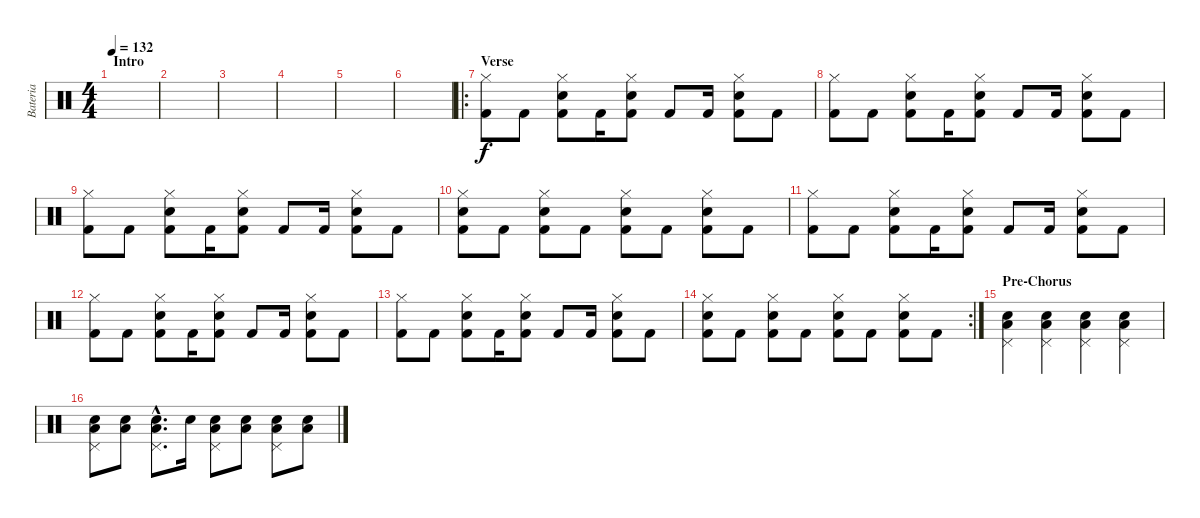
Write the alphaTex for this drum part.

\track ("Bateria" "Bateria") {instrument percussion}
\staff {score}
\articulation defaults
\ts (4 4)
\section ("" "Intro")
\tempo 132
\clef neutral
\ks c
|
|
|
|
|
|
\ro
\section ("" "Verse")
("Hi-Hat (closed)" "Kick (hit) 2").8 "Kick (hit) 2".8 ("Hi-Hat (closed)" "Kick (hit) 2" "Electric Snare (hit)").8 "Kick (hit) 2".16 ("Hi-Hat (closed)" "Kick (hit) 2" "Electric Snare (hit)").8 "Kick (hit) 2".8 "Kick (hit) 2".16 ("Hi-Hat (closed)" "Kick (hit) 2" "Electric Snare (hit)").8 "Kick (hit) 2".8 |
("Hi-Hat (closed)" "Kick (hit) 2").8 "Kick (hit) 2".8 ("Hi-Hat (closed)" "Kick (hit) 2" "Electric Snare (hit)").8 "Kick (hit) 2".16 ("Hi-Hat (closed)" "Kick (hit) 2" "Electric Snare (hit)").8 "Kick (hit) 2".8 "Kick (hit) 2".16 ("Hi-Hat (closed)" "Kick (hit) 2" "Electric Snare (hit)").8 "Kick (hit) 2".8 |
("Hi-Hat (closed)" "Kick (hit) 2").8 "Kick (hit) 2".8 ("Hi-Hat (closed)" "Kick (hit) 2" "Electric Snare (hit)").8 "Kick (hit) 2".16 ("Hi-Hat (closed)" "Kick (hit) 2" "Electric Snare (hit)").8 "Kick (hit) 2".8 "Kick (hit) 2".16 ("Hi-Hat (closed)" "Kick (hit) 2" "Electric Snare (hit)").8 "Kick (hit) 2".8 |
("Hi-Hat (closed)" "Kick (hit) 2" "Electric Snare (hit)").8 "Kick (hit) 2".8 ("Hi-Hat (closed)" "Kick (hit) 2" "Electric Snare (hit)").8 "Kick (hit) 2".8 ("Hi-Hat (closed)" "Kick (hit) 2" "Electric Snare (hit)").8 "Kick (hit) 2".8 ("Hi-Hat (closed)" "Kick (hit) 2" "Electric Snare (hit)").8 "Kick (hit) 2".8 |
("Hi-Hat (closed)" "Kick (hit) 2").8 "Kick (hit) 2".8 ("Hi-Hat (closed)" "Kick (hit) 2" "Electric Snare (hit)").8 "Kick (hit) 2".16 ("Hi-Hat (closed)" "Kick (hit) 2" "Electric Snare (hit)").8 "Kick (hit) 2".8 "Kick (hit) 2".16 ("Hi-Hat (closed)" "Kick (hit) 2" "Electric Snare (hit)").8 "Kick (hit) 2".8 |
("Hi-Hat (closed)" "Kick (hit) 2").8 "Kick (hit) 2".8 ("Hi-Hat (closed)" "Kick (hit) 2" "Electric Snare (hit)").8 "Kick (hit) 2".16 ("Hi-Hat (closed)" "Kick (hit) 2" "Electric Snare (hit)").8 "Kick (hit) 2".8 "Kick (hit) 2".16 ("Hi-Hat (closed)" "Kick (hit) 2" "Electric Snare (hit)").8 "Kick (hit) 2".8 |
("Hi-Hat (closed)" "Kick (hit) 2").8 "Kick (hit) 2".8 ("Hi-Hat (closed)" "Kick (hit) 2" "Electric Snare (hit)").8 "Kick (hit) 2".16 ("Hi-Hat (closed)" "Kick (hit) 2" "Electric Snare (hit)").8 "Kick (hit) 2".8 "Kick (hit) 2".16 ("Hi-Hat (closed)" "Kick (hit) 2" "Electric Snare (hit)").8 "Kick (hit) 2".8 |
\rc 2
("Hi-Hat (closed)" "Kick (hit) 2" "Electric Snare (hit)").8 "Kick (hit) 2".8 ("Hi-Hat (closed)" "Kick (hit) 2" "Electric Snare (hit)").8 "Kick (hit) 2".8 ("Hi-Hat (closed)" "Kick (hit) 2" "Electric Snare (hit)").8 "Kick (hit) 2".8 ("Hi-Hat (closed)" "Kick (hit) 2" "Electric Snare (hit)").8 "Kick (hit) 2".8 |
\section ("" "Pre-Chorus")
("Pedal Hi-Hat (hit)" "Electric Snare (hit)" "Low Floor Tom (hit)").4 ("Pedal Hi-Hat (hit)" "Electric Snare (hit)" "Low Floor Tom (hit)").4 ("Pedal Hi-Hat (hit)" "Electric Snare (hit)" "Low Floor Tom (hit)").4 ("Pedal Hi-Hat (hit)" "Electric Snare (hit)" "Low Floor Tom (hit)").4 |
("Pedal Hi-Hat (hit)" "Electric Snare (hit)" "Low Floor Tom (hit)").8 ("Electric Snare (hit)" "Low Floor Tom (hit)").8 ("Pedal Hi-Hat (hit)"{hac} "Electric Snare (hit)"{hac} "Low Floor Tom (hit)"{hac}).8{d} "Electric Snare (hit)".16 ("Pedal Hi-Hat (hit)" "Electric Snare (hit)" "Low Floor Tom (hit)").8 ("Electric Snare (hit)" "Low Floor Tom (hit)").8 ("Pedal Hi-Hat (hit)" "Electric Snare (hit)" "Low Floor Tom (hit)").8 ("Electric Snare (hit)" "Low Floor Tom (hit)").8
